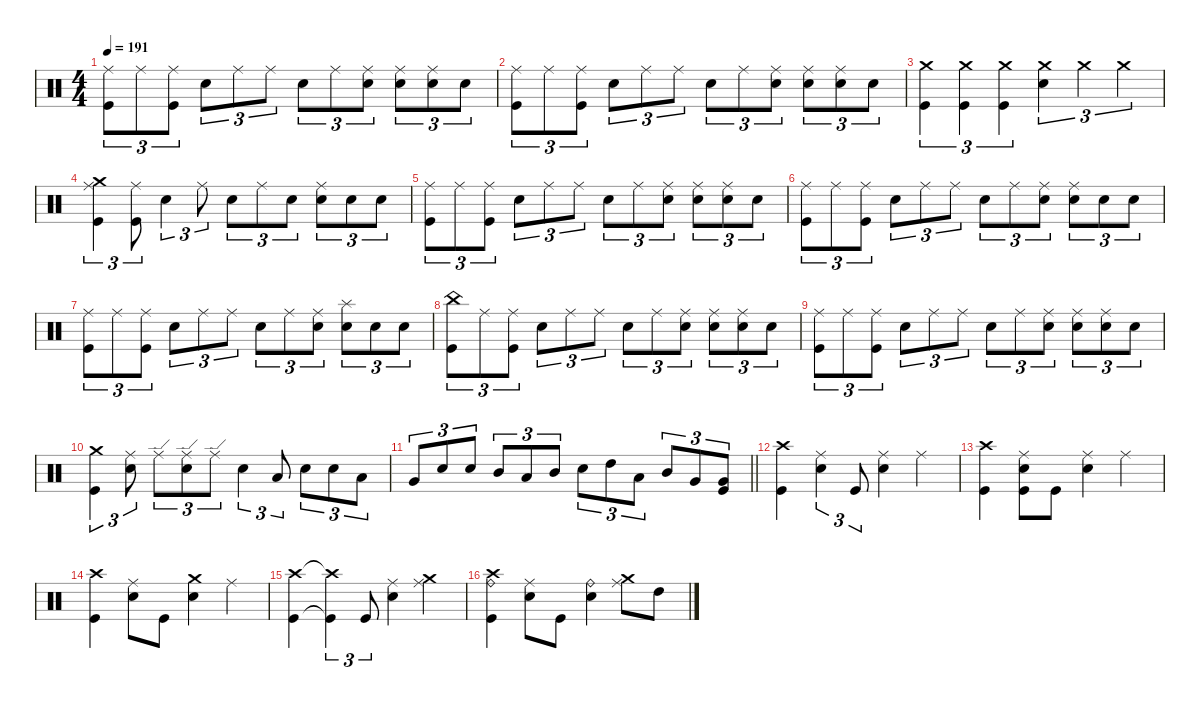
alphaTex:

\defaultSystemsLayout 4
\hideDynamics
\bracketExtendMode nobrackets
\singleTrackTrackNamePolicy hidden
\multiTrackTrackNamePolicy hidden
\firstSystemTrackNameMode fullname
\firstSystemTrackNameOrientation horizontal
\otherSystemsTrackNameOrientation horizontal
\track ("Drumkit" "drm.") {instrument percussion}
\staff {score}
\articulation defaults
\ts (4 4)
\tempo 191
\clef neutral
\ks c
("Kick (hit)" "Ride (middle)").8{tu (3 2) dy mf beam Down} "Ride (middle)".8{tu (3 2) dy mp beam Down} ("Kick (hit)" "Ride (middle)").8{tu (3 2) dy mf beam Down} "Snare (hit) 2".8{tu (3 2) dy mp beam Down} "Ride (middle)".8{tu (3 2) beam Down} "Ride (middle)".8{tu (3 2) beam Down} "Snare (hit) 2".8{tu (3 2) dy f beam Down} "Ride (middle)".8{tu (3 2) dy mp beam Down} ("Snare (hit) 2" "Ride (middle)").8{tu (3 2) dy p beam Down} ("Snare (hit) 2" "Ride (middle)").8{tu (3 2) dy mp beam Down} ("Snare (hit) 2" "Ride (middle)").8{tu (3 2) beam Down} "Snare (hit) 2".8{tu (3 2) beam Down} |
("Kick (hit)" "Ride (middle)").8{tu (3 2) dy mf beam Down} "Ride (middle)".8{tu (3 2) dy mp beam Down} ("Kick (hit)" "Ride (middle)").8{tu (3 2) dy mf beam Down} "Snare (hit) 2".8{tu (3 2) dy mp beam Down} "Ride (middle)".8{tu (3 2) beam Down} "Ride (middle)".8{tu (3 2) beam Down} "Snare (hit) 2".8{tu (3 2) dy f beam Down} "Ride (middle)".8{tu (3 2) dy mp beam Down} ("Snare (hit) 2" "Ride (middle)").8{tu (3 2) dy p beam Down} ("Snare (hit) 2" "Ride (middle)").8{tu (3 2) dy mp beam Down} ("Snare (hit) 2" "Ride (middle)").8{tu (3 2) beam Down} "Snare (hit) 2".8{tu (3 2) beam Down} |
("Kick (hit)" "Crash medium (hit)").4{tu (3 2) beam Down} ("Kick (hit)" "Crash medium (hit)").4{tu (3 2) dy f beam Down} ("Kick (hit)" "Crash medium (hit)").4{tu (3 2) beam Down} ("Snare (hit) 2" "Crash medium (hit)").4{tu (3 2) beam Down} "Crash medium (hit)".4{tu (3 2) dy mf beam Down} "Crash medium (hit)".4{tu (3 2) dy f beam Down} |
("Kick (hit)" "Ride (middle)" "Crash medium (hit)").4{tu (3 2) dy mf beam Down} ("Kick (hit)" "Ride (middle)").8{tu (3 2) beam Down} "Snare (hit) 2".4{tu (3 2) dy mp beam Down} "Ride (middle)".8{tu (3 2) beam Down} "Snare (hit) 2".8{tu (3 2) dy f beam Down} "Ride (middle)".8{tu (3 2) dy mp beam Down} "Snare (hit) 2".8{tu (3 2) dy p beam Down} ("Snare (hit) 2" "Ride (middle)").8{tu (3 2) dy mp beam Down} "Snare (hit) 2".8{tu (3 2) beam Down} "Snare (hit) 2".8{tu (3 2) beam Down} |
("Kick (hit)" "Ride (middle)").8{tu (3 2) dy mf beam Down} "Ride (middle)".8{tu (3 2) dy mp beam Down} ("Kick (hit)" "Ride (middle)").8{tu (3 2) dy mf beam Down} "Snare (hit) 2".8{tu (3 2) dy mp beam Down} "Ride (middle)".8{tu (3 2) beam Down} "Ride (middle)".8{tu (3 2) beam Down} "Snare (hit) 2".8{tu (3 2) dy f beam Down} "Ride (middle)".8{tu (3 2) dy mp beam Down} ("Snare (hit) 2" "Ride (middle)").8{tu (3 2) dy p beam Down} ("Snare (hit) 2" "Ride (middle)").8{tu (3 2) dy mp beam Down} ("Snare (hit) 2" "Ride (middle)").8{tu (3 2) beam Down} "Snare (hit) 2".8{tu (3 2) beam Down} |
("Kick (hit)" "Ride (middle)").8{tu (3 2) dy mf beam Down} "Ride (middle)".8{tu (3 2) dy mp beam Down} ("Kick (hit)" "Ride (middle)").8{tu (3 2) dy mf beam Down} "Snare (hit) 2".8{tu (3 2) dy mp beam Down} "Ride (middle)".8{tu (3 2) beam Down} "Ride (middle)".8{tu (3 2) beam Down} "Snare (hit) 2".8{tu (3 2) dy f beam Down} "Ride (middle)".8{tu (3 2) dy mp beam Down} ("Snare (hit) 2" "Ride (middle)").8{tu (3 2) dy p beam Down} ("Snare (hit) 2" "Ride (middle)").8{tu (3 2) dy mp beam Down} "Snare (hit) 2".8{tu (3 2) beam Down} "Snare (hit) 2".8{tu (3 2) beam Down} |
("Kick (hit)" "Ride (middle)").8{tu (3 2) dy mf beam Down} "Ride (middle)".8{tu (3 2) dy mp beam Down} ("Kick (hit)" "Ride (middle)").8{tu (3 2) dy mf beam Down} "Snare (hit) 2".8{tu (3 2) dy mp beam Down} "Ride (middle)".8{tu (3 2) beam Down} "Ride (middle)".8{tu (3 2) beam Down} "Snare (hit) 2".8{tu (3 2) dy f beam Down} "Ride (middle)".8{tu (3 2) dy mp beam Down} ("Snare (hit) 2" "Ride (middle)").8{tu (3 2) dy p beam Down} ("Snare (hit) 2" "Splash (hit)").8{tu (3 2) dy mp beam Down} "Snare (hit) 2".8{tu (3 2) beam Down} "Snare (hit) 2".8{tu (3 2) beam Down} |
("Kick (hit)" "China (hit)").8{tu (3 2) dy mf beam Down} "Ride (middle)".8{tu (3 2) dy mp beam Down} ("Kick (hit)" "Ride (middle)").8{tu (3 2) dy mf beam Down} "Snare (hit) 2".8{tu (3 2) dy mp beam Down} "Ride (middle)".8{tu (3 2) beam Down} "Ride (middle)".8{tu (3 2) beam Down} "Snare (hit) 2".8{tu (3 2) dy f beam Down} "Ride (middle)".8{tu (3 2) dy mp beam Down} ("Snare (hit) 2" "Ride (middle)").8{tu (3 2) dy p beam Down} ("Snare (hit) 2" "Ride (middle)").8{tu (3 2) dy mp beam Down} ("Snare (hit) 2" "Ride (middle)").8{tu (3 2) beam Down} "Snare (hit) 2".8{tu (3 2) beam Down} |
("Kick (hit)" "Ride (middle)").8{tu (3 2) dy mf beam Down} "Ride (middle)".8{tu (3 2) dy mp beam Down} ("Kick (hit)" "Ride (middle)").8{tu (3 2) dy mf beam Down} "Snare (hit) 2".8{tu (3 2) dy mp beam Down} "Ride (middle)".8{tu (3 2) beam Down} "Ride (middle)".8{tu (3 2) beam Down} "Snare (hit) 2".8{tu (3 2) dy f beam Down} "Ride (middle)".8{tu (3 2) dy mp beam Down} ("Snare (hit) 2" "Ride (middle)").8{tu (3 2) dy p beam Down} ("Snare (hit) 2" "Ride (middle)").8{tu (3 2) dy mp beam Down} ("Snare (hit) 2" "Ride (middle)").8{tu (3 2) beam Down} "Snare (hit) 2".8{tu (3 2) beam Down} |
("Kick (hit)" "Crash medium (hit)").4{tu (3 2) dy mf beam Down} ("Snare (hit) 2" "Ride (middle)").8{tu (3 2) beam Down} "Ride (edge)".8{tu (3 2) beam Down} ("Snare (hit) 2" "Ride (edge)").8{tu (3 2) beam Down} "Ride (edge)".8{tu (3 2) beam Down} "Snare (hit) 2".4{tu (3 2) dy f beam Down} "Low Tom (hit)".8{tu (3 2) beam Up} "Snare (hit) 2".8{tu (3 2) dy mp beam Down} "Snare (hit) 2".8{tu (3 2) beam Down} "Low Tom (hit)".8{tu (3 2) dy f beam Down} |
\barLineRight lightlight "Very Low Tom (hit)".8{tu (3 2) beam Up} "Snare (hit) 2".8{tu (3 2) beam Up} "Snare (hit) 2".8{tu (3 2) beam Up} "Mid Tom (hit)".8{tu (3 2) beam Up} "Low Tom (hit)".8{tu (3 2) beam Up} "Mid Tom (hit)".8{tu (3 2) beam Up} "Snare (hit) 2".8{tu (3 2) beam Down} "High Tom (hit)".8{tu (3 2) beam Down} "Low Tom (hit)".8{tu (3 2) beam Down} "Mid Tom (hit)".8{tu (3 2) beam Up} "Very Low Tom (hit)".8{tu (3 2) beam Up}
("Very Low Tom (hit)" "Kick (hit)").8{tu (3 2) beam Up} |
("Kick (hit)" "Crash high (hit)").4{beam Down} ("Snare (hit) 2" "Ride (middle)").4{tu (3 2) dy mp beam Down} "Kick (hit)".8{tu (3 2) dy f beam Up} ("Snare (hit) 2" "Ride (middle)").4{beam Down} "Ride (middle)".4{dy mp beam Down} |
("Kick (hit)" "Crash high (hit)").4{dy f beam Down} ("Snare (hit) 2" "Ride (middle)" "Kick (hit)").8{dy mf beam Down} "Kick (hit)".8{dy f beam Down} ("Snare (hit) 2" "Ride (middle)").4{beam Down} "Ride (middle)".4{dy mp beam Down} |
("Kick (hit)" "Crash high (hit)").4{dy f beam Down} ("Snare (hit) 2" "Ride (middle)").8{dy mp beam Down} "Kick (hit)".8{dy f beam Down} ("Snare (hit) 2" "Crash medium (hit)").4{beam Down} "Ride (middle)".4{dy mp beam Down} |
("Kick (hit)" "Crash high (hit)").4{dy f beam Down} ("Kick (hit)"{t} "Crash high (hit)"{t}).4{tu (3 2) dy mf beam Down} "Kick (hit)".8{tu (3 2) dy f beam Up} ("Snare (hit) 2" "Ride (middle)").4{beam Down} ("Crash medium (hit)" "Ride (middle)").4{dy mp beam Down} |
("Kick (hit)" "Crash high (hit)" "Ride (bell)").4{dy f beam Down} ("Snare (hit) 2" "Ride (middle)").8{dy mp beam Down} "Kick (hit)".8{dy f beam Down} ("Snare (hit) 2" "Ride (bell)").4{beam Down} ("Crash medium (hit)" "Ride (middle)").8{dy mp beam Down} "High Tom (hit)".8{beam Down}
